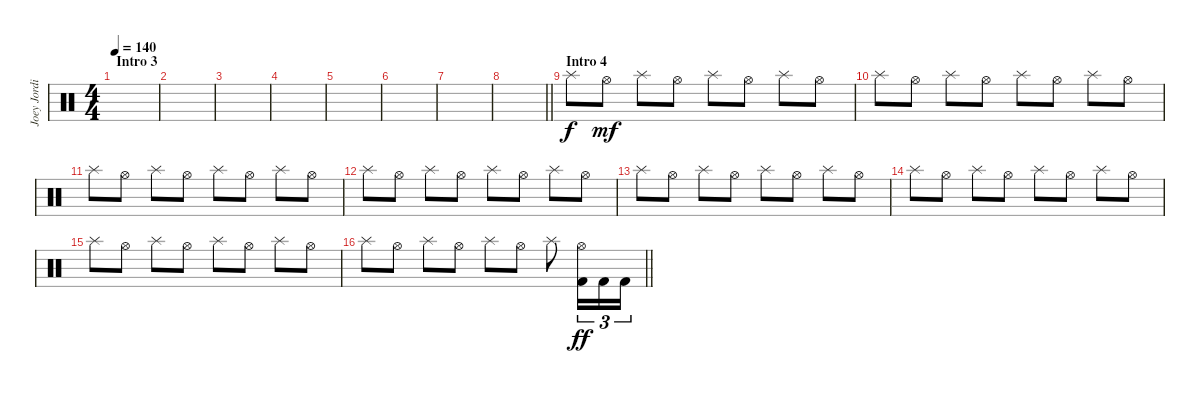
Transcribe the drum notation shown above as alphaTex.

\track ("Joey Jordison" "Joey Jordi") {instrument percussion}
\staff {score}
\articulation defaults
\ts (4 4)
\section ("" "Intro 3")
\tempo 140
\clef neutral
\ks c
|
|
|
|
|
|
|
\barLineRight lightlight
|
\section ("" "Intro 4")
"Splash (hit)".8{volume 13} "Hi-Hat (open)".8{dy mf} "Splash (hit)".8 "Hi-Hat (open)".8 "Splash (hit)".8 "Hi-Hat (open)".8 "Splash (hit)".8 "Hi-Hat (open)".8 |
"Splash (hit)".8 "Hi-Hat (open)".8 "Splash (hit)".8 "Hi-Hat (open)".8 "Splash (hit)".8 "Hi-Hat (open)".8 "Splash (hit)".8 "Hi-Hat (open)".8 |
"Splash (hit)".8 "Hi-Hat (open)".8 "Splash (hit)".8 "Hi-Hat (open)".8 "Splash (hit)".8 "Hi-Hat (open)".8 "Splash (hit)".8 "Hi-Hat (open)".8 |
"Splash (hit)".8 "Hi-Hat (open)".8 "Splash (hit)".8 "Hi-Hat (open)".8 "Splash (hit)".8 "Hi-Hat (open)".8 "Splash (hit)".8 "Hi-Hat (open)".8 |
"Splash (hit)".8 "Hi-Hat (open)".8 "Splash (hit)".8 "Hi-Hat (open)".8 "Splash (hit)".8 "Hi-Hat (open)".8 "Splash (hit)".8 "Hi-Hat (open)".8 |
"Splash (hit)".8 "Hi-Hat (open)".8 "Splash (hit)".8 "Hi-Hat (open)".8 "Splash (hit)".8 "Hi-Hat (open)".8 "Splash (hit)".8 "Hi-Hat (open)".8 |
"Splash (hit)".8 "Hi-Hat (open)".8 "Splash (hit)".8 "Hi-Hat (open)".8 "Splash (hit)".8 "Hi-Hat (open)".8 "Splash (hit)".8 "Hi-Hat (open)".8 |
\barLineRight lightlight "Splash (hit)".8 "Hi-Hat (open)".8 "Splash (hit)".8 "Hi-Hat (open)".8 "Splash (hit)".8 "Hi-Hat (open)".8 "Splash (hit)".8
("Hi-Hat (open)" "Kick (hit) 2").16{tu (3 2) dy ff} "Kick (hit) 2".16{tu (3 2)} "Kick (hit) 2".16{tu (3 2)}
